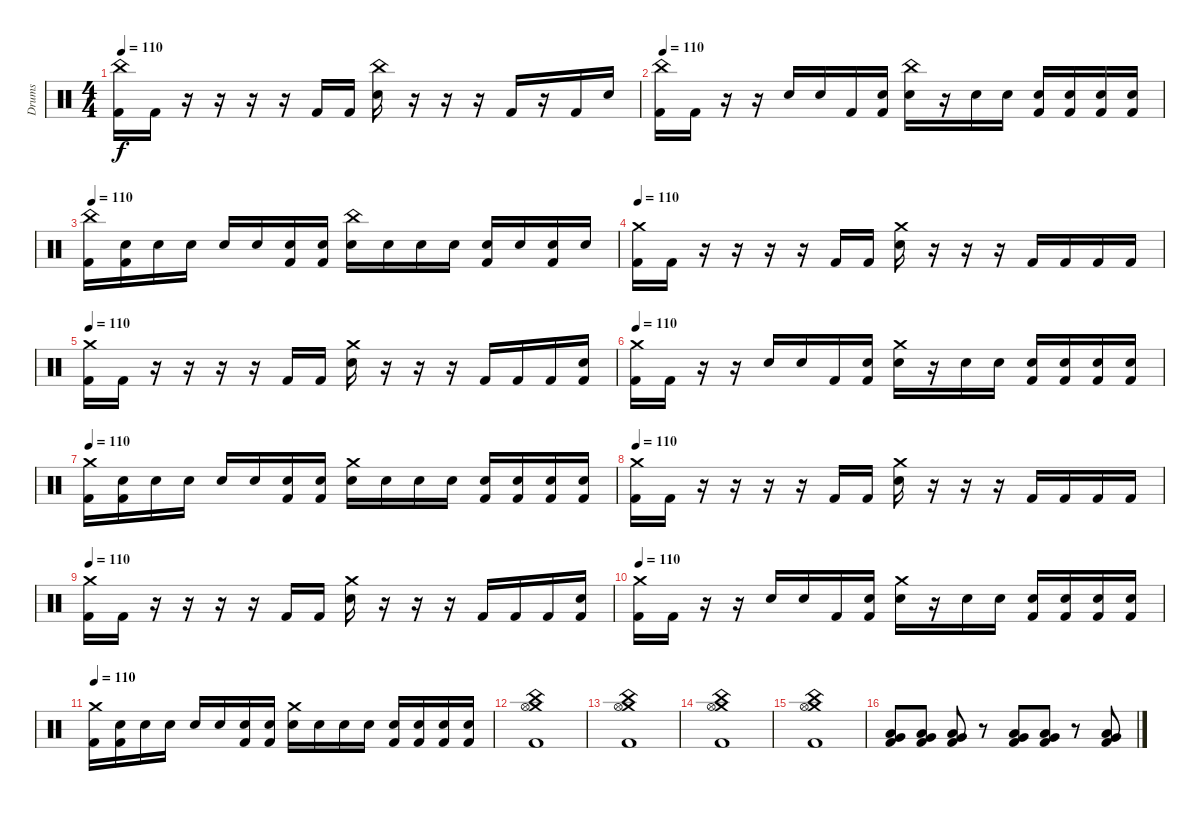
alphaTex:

\track ("Drums" "Drums") {instrument percussion}
\staff {score}
\articulation defaults
\ts (4 4)
\tempo 110
\clef neutral
\ks c
("China (hit)" "Kick (hit) 2").16{dy f} "Kick (hit) 2".16 r.16 r.16 r.16 r.16 "Kick (hit) 2".16 "Kick (hit) 2".16 ("China (hit)" "Snare (hit) 2").16 r.16 r.16 r.16 "Kick (hit) 2".16 r.16 "Kick (hit) 2".16 "Snare (hit)".16 |
\tempo 110
("China (hit)" "Kick (hit) 2").16 "Kick (hit) 2".16 r.16 r.16 "Snare (hit)".16 "Snare (hit)".16 "Kick (hit) 2".16 ("Snare (hit)" "Kick (hit) 2").16 ("China (hit)" "Snare (hit) 2").16 r.16 "Snare (hit)".16 "Snare (hit)".16 ("Snare (hit)" "Kick (hit) 2").16 ("Snare (hit)" "Kick (hit) 2").16 ("Snare (hit)" "Kick (hit) 2").16 ("Snare (hit)" "Kick (hit) 2").16 |
\tempo 110
("China (hit)" "Kick (hit) 2").16 ("Snare (hit)" "Kick (hit) 2").16 "Snare (hit)".16 "Snare (hit)".16 "Snare (hit)".16 "Snare (hit)".16 ("Snare (hit)" "Kick (hit) 2").16 ("Snare (hit)" "Kick (hit) 2").16 ("China (hit)" "Snare (hit) 2").16 "Snare (hit)".16 "Snare (hit)".16 "Snare (hit)".16 ("Snare (hit)" "Kick (hit) 2").16 "Snare (hit)".16 ("Snare (hit)" "Kick (hit) 2").16 "Snare (hit)".16 |
\tempo 110
("Crash medium (hit)" "Kick (hit) 2").16 "Kick (hit) 2".16 r.16 r.16 r.16 r.16 "Kick (hit) 2".16 "Kick (hit) 2".16 ("Crash medium (hit)" "Snare (hit) 2").16 r.16 r.16 r.16 "Kick (hit) 2".16 "Kick (hit) 2".16 "Kick (hit) 2".16 "Kick (hit) 2".16 |
\tempo 110
("Crash medium (hit)" "Kick (hit) 2").16 "Kick (hit) 2".16 r.16 r.16 r.16 r.16 "Kick (hit) 2".16 "Kick (hit) 2".16 ("Crash medium (hit)" "Snare (hit) 2").16 r.16 r.16 r.16 "Kick (hit) 2".16 "Kick (hit) 2".16 "Kick (hit) 2".16 ("Snare (hit)" "Kick (hit) 2").16 |
\tempo 110
("Crash medium (hit)" "Kick (hit) 2").16 "Kick (hit) 2".16 r.16 r.16 "Snare (hit)".16 "Snare (hit)".16 "Kick (hit) 2".16 ("Snare (hit)" "Kick (hit) 2").16 ("Crash medium (hit)" "Snare (hit) 2").16 r.16 "Snare (hit)".16 "Snare (hit)".16 ("Snare (hit)" "Kick (hit) 2").16 ("Snare (hit)" "Kick (hit) 2").16 ("Snare (hit)" "Kick (hit) 2").16 ("Snare (hit)" "Kick (hit) 2").16 |
\tempo 110
("Crash medium (hit)" "Kick (hit) 2").16 ("Snare (hit)" "Kick (hit) 2").16 "Snare (hit)".16 "Snare (hit)".16 "Snare (hit)".16 "Snare (hit)".16 ("Snare (hit)" "Kick (hit) 2").16 ("Snare (hit)" "Kick (hit) 2").16 ("Crash medium (hit)" "Snare (hit) 2").16 "Snare (hit)".16 "Snare (hit)".16 "Snare (hit)".16 ("Snare (hit)" "Kick (hit) 2").16 ("Snare (hit)" "Kick (hit) 2").16 ("Snare (hit)" "Kick (hit) 2").16 ("Snare (hit)" "Kick (hit) 2").16 |
\tempo 110
("Crash medium (hit)" "Kick (hit) 2").16 "Kick (hit) 2".16 r.16 r.16 r.16 r.16 "Kick (hit) 2".16 "Kick (hit) 2".16 ("Crash medium (hit)" "Snare (hit) 2").16 r.16 r.16 r.16 "Kick (hit) 2".16 "Kick (hit) 2".16 "Kick (hit) 2".16 "Kick (hit) 2".16 |
\tempo 110
("Crash medium (hit)" "Kick (hit) 2").16 "Kick (hit) 2".16 r.16 r.16 r.16 r.16 "Kick (hit) 2".16 "Kick (hit) 2".16 ("Crash medium (hit)" "Snare (hit) 2").16 r.16 r.16 r.16 "Kick (hit) 2".16 "Kick (hit) 2".16 "Kick (hit) 2".16 ("Snare (hit)" "Kick (hit) 2").16 |
\tempo 110
("Crash medium (hit)" "Kick (hit) 2").16 "Kick (hit) 2".16 r.16 r.16 "Snare (hit)".16 "Snare (hit)".16 "Kick (hit) 2".16 ("Snare (hit)" "Kick (hit) 2").16 ("Crash medium (hit)" "Snare (hit) 2").16 r.16 "Snare (hit)".16 "Snare (hit)".16 ("Snare (hit)" "Kick (hit) 2").16 ("Snare (hit)" "Kick (hit) 2").16 ("Snare (hit)" "Kick (hit) 2").16 ("Snare (hit)" "Kick (hit) 2").16 |
\tempo 110
("Crash medium (hit)" "Kick (hit) 2").16 ("Snare (hit)" "Kick (hit) 2").16 "Snare (hit)".16 "Snare (hit)".16 "Snare (hit)".16 "Snare (hit)".16 ("Snare (hit)" "Kick (hit) 2").16 ("Snare (hit)" "Kick (hit) 2").16 ("Crash medium (hit)" "Snare (hit) 2").16 "Snare (hit)".16 "Snare (hit)".16 "Snare (hit)".16 ("Snare (hit)" "Kick (hit) 2").16 ("Snare (hit)" "Kick (hit) 2").16 ("Snare (hit)" "Kick (hit) 2").16 ("Snare (hit)" "Kick (hit) 2").16 |
("Crash medium (hit)" "China (hit)" "Hi-Hat (open)" "Kick (hit) 2").1 |
("Crash medium (hit)" "China (hit)" "Hi-Hat (open)" "Kick (hit) 2").1 |
("Crash medium (hit)" "China (hit)" "Hi-Hat (open)" "Kick (hit) 2").1 |
("Crash medium (hit)" "China (hit)" "Hi-Hat (open)" "Kick (hit) 2").1 |
("Very Low Tom (hit)" "Low Floor Tom (hit)" "Kick (hit) 2").8 ("Very Low Tom (hit)" "Low Floor Tom (hit)" "Kick (hit) 2").8 ("Very Low Tom (hit)" "Low Floor Tom (hit)" "Kick (hit) 2").8 r.8 ("Very Low Tom (hit)" "Low Floor Tom (hit)" "Kick (hit) 2").8 ("Very Low Tom (hit)" "Low Floor Tom (hit)" "Kick (hit) 2").8 r.8 ("Very Low Tom (hit)" "Low Floor Tom (hit)" "Kick (hit) 2").8
